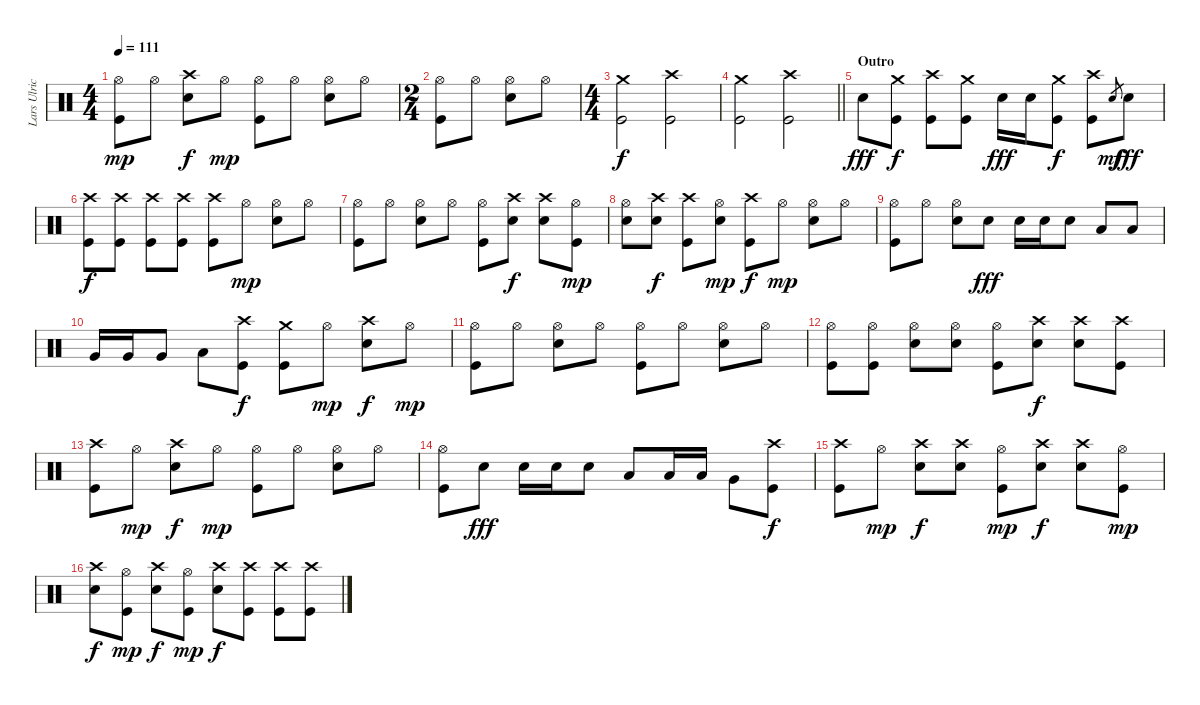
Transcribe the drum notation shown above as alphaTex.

\track ("Lars Ulrich (Drums)" "Lars Ulric") {instrument percussion}
\staff {score}
\articulation defaults
\ts (4 4)
\tempo 111
\clef neutral
\ks c
("Hi-Hat (open)" "Kick (hit)").8{dy mp} "Hi-Hat (open)".8 ("Crash high (hit)" "Snare (hit) 2").8{dy f} "Hi-Hat (open)".8{dy mp} ("Hi-Hat (open)" "Kick (hit)").8 "Hi-Hat (open)".8 ("Hi-Hat (open)" "Snare (hit) 2").8 "Hi-Hat (open)".8 |
\ts (2 4)
("Hi-Hat (open)" "Kick (hit)").8 "Hi-Hat (open)".8 ("Hi-Hat (open)" "Snare (hit) 2").8 "Hi-Hat (open)".8 |
\ts (4 4)
("Crash medium (hit)" "Kick (hit)").2{dy f} ("Crash high (hit)" "Kick (hit)").2 |
\barLineRight lightlight
("Crash medium (hit)" "Kick (hit)").2 ("Crash high (hit)" "Kick (hit)").2 |
\section ("" "Outro")
"Snare (hit) 2".8{dy fff} ("Crash medium (hit)" "Kick (hit)").8{dy f} ("Crash high (hit)" "Kick (hit)").8 ("Crash medium (hit)" "Kick (hit)").8 "Snare (hit) 2".16{dy fff} "Snare (hit) 2".16 ("Crash medium (hit)" "Kick (hit)").8{dy f} ("Crash high (hit)" "Kick (hit)").8 "Snare (hit)".8{gr dy mf} "Snare (hit) 2".8{dy fff} |
("Crash high (hit)" "Kick (hit)").8{dy f} ("Crash high (hit)" "Kick (hit)").8 ("Crash high (hit)" "Kick (hit)").8 ("Crash high (hit)" "Kick (hit)").8 ("Crash high (hit)" "Kick (hit)").8 "Hi-Hat (open)".8{dy mp} ("Hi-Hat (open)" "Snare (hit) 2").8 "Hi-Hat (open)".8 |
("Hi-Hat (open)" "Kick (hit)").8 "Hi-Hat (open)".8 ("Hi-Hat (open)" "Snare (hit) 2").8 "Hi-Hat (open)".8 ("Hi-Hat (open)" "Kick (hit)").8 ("Crash high (hit)" "Snare (hit) 2").8{dy f} ("Crash high (hit)" "Snare (hit) 2").8 ("Hi-Hat (open)" "Kick (hit)").8{dy mp} |
("Hi-Hat (open)" "Snare (hit) 2").8 ("Crash high (hit)" "Snare (hit) 2").8{dy f} ("Crash high (hit)" "Kick (hit)").8 ("Hi-Hat (open)" "Snare (hit) 2").8{dy mp} ("Crash high (hit)" "Kick (hit)").8{dy f} "Hi-Hat (open)".8{dy mp} ("Hi-Hat (open)" "Snare (hit) 2").8 "Hi-Hat (open)".8 |
("Hi-Hat (open)" "Kick (hit)").8 "Hi-Hat (open)".8 ("Hi-Hat (open)" "Snare (hit) 2").8 "Snare (hit) 2".8{dy fff} "Snare (hit) 2".16 "Snare (hit) 2".16 "Snare (hit) 2".8 "Low Tom (hit)".8 "Low Tom (hit)".8 |
"Very Low Tom (hit)".16 "Very Low Tom (hit)".16 "Very Low Tom (hit)".8 "Low Floor Tom (hit)".8 ("Crash high (hit)" "Kick (hit)").8{dy f} ("Crash medium (hit)" "Kick (hit)").8 "Hi-Hat (open)".8{dy mp} ("Crash high (hit)" "Snare (hit) 2").8{dy f} "Hi-Hat (open)".8{dy mp} |
("Hi-Hat (open)" "Kick (hit)").8 "Hi-Hat (open)".8 ("Hi-Hat (open)" "Snare (hit) 2").8 "Hi-Hat (open)".8 ("Hi-Hat (open)" "Kick (hit)").8 "Hi-Hat (open)".8 ("Hi-Hat (open)" "Snare (hit) 2").8 "Hi-Hat (open)".8 |
("Hi-Hat (open)" "Kick (hit)").8 ("Hi-Hat (open)" "Kick (hit)").8 ("Hi-Hat (open)" "Snare (hit) 2").8 ("Hi-Hat (open)" "Snare (hit) 2").8 ("Hi-Hat (open)" "Kick (hit)").8 ("Crash high (hit)" "Snare (hit) 2").8{dy f} ("Crash high (hit)" "Snare (hit) 2").8 ("Crash high (hit)" "Kick (hit)").8 |
("Crash high (hit)" "Kick (hit)").8 "Hi-Hat (open)".8{dy mp} ("Crash high (hit)" "Snare (hit) 2").8{dy f} "Hi-Hat (open)".8{dy mp} ("Hi-Hat (open)" "Kick (hit)").8 "Hi-Hat (open)".8 ("Hi-Hat (open)" "Snare (hit) 2").8 "Hi-Hat (open)".8 |
("Hi-Hat (open)" "Kick (hit)").8 "Snare (hit) 2".8{dy fff} "Snare (hit) 2".16 "Snare (hit) 2".16 "Snare (hit) 2".8 "Low Tom (hit)".8 "Low Tom (hit)".16 "Low Tom (hit)".16 "Very Low Tom (hit)".8 ("Crash high (hit)" "Kick (hit)").8{dy f} |
("Crash high (hit)" "Kick (hit)").8 "Hi-Hat (open)".8{dy mp} ("Crash high (hit)" "Snare (hit) 2").8{dy f} ("Crash high (hit)" "Snare (hit) 2").8 ("Hi-Hat (open)" "Kick (hit)").8{dy mp} ("Crash high (hit)" "Snare (hit) 2").8{dy f} ("Crash high (hit)" "Snare (hit) 2").8 ("Hi-Hat (open)" "Kick (hit)").8{dy mp} |
("Crash high (hit)" "Snare (hit) 2").8{dy f} ("Hi-Hat (open)" "Kick (hit)").8{dy mp} ("Crash high (hit)" "Snare (hit) 2").8{dy f} ("Hi-Hat (open)" "Kick (hit)").8{dy mp} ("Crash high (hit)" "Snare (hit) 2").8{dy f} ("Crash high (hit)" "Kick (hit)").8 ("Crash high (hit)" "Kick (hit)").8 ("Crash high (hit)" "Kick (hit)").8
